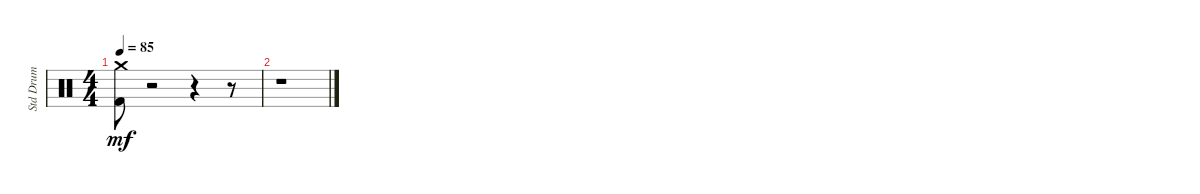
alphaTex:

\track ("Std Drum" "Std Drum") {instrument percussion}
\staff {score}
\articulation defaults
\ts (4 4)
\tempo 85
\clef neutral
\ks c
("Kick (hit) 2" "Crash medium (hit)").8{dy mf} r.2 r.4 r.8 |
r.1
